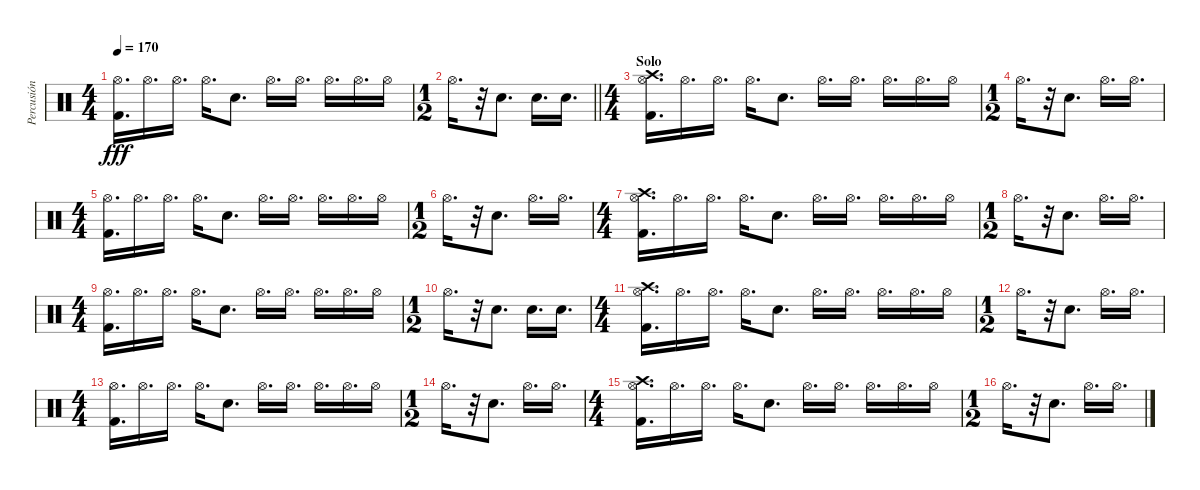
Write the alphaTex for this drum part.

\track ("Percusión" "Percusión") {instrument percussion}
\staff {score}
\articulation defaults
\ts (4 4)
\tempo 170
\clef neutral
\ks c
("Hi-Hat (open)" "Kick (hit) 2").16{d dy fff} "Hi-Hat (open)".16{d} "Hi-Hat (open)".16{d} "Hi-Hat (open)".16{d} "Electric Snare (hit)".8{d} "Hi-Hat (open)".16{d} "Hi-Hat (open)".16{d} "Hi-Hat (open)".16{d} "Hi-Hat (open)".16{d} "Hi-Hat (open)".16 |
\ts (1 2)
\barLineRight lightlight "Hi-Hat (open)".16{d}
r.32 "Electric Snare (hit)".8{d} "Electric Snare (hit)".16{d} "Electric Snare (hit)".16{d} |
\ts (4 4)
\section ("" "Solo")
("Crash high (hit)" "Hi-Hat (open)" "Kick (hit) 2").16{d} "Hi-Hat (open)".16{d} "Hi-Hat (open)".16{d} "Hi-Hat (open)".16{d} "Electric Snare (hit)".8{d} "Hi-Hat (open)".16{d} "Hi-Hat (open)".16{d} "Hi-Hat (open)".16{d} "Hi-Hat (open)".16{d} "Hi-Hat (open)".16 |
\ts (1 2)
"Hi-Hat (open)".16{d} r.32 "Electric Snare (hit)".8{d} "Hi-Hat (open)".16{d} "Hi-Hat (open)".16{d} |
\ts (4 4)
("Hi-Hat (open)" "Kick (hit) 2").16{d} "Hi-Hat (open)".16{d} "Hi-Hat (open)".16{d} "Hi-Hat (open)".16{d} "Electric Snare (hit)".8{d} "Hi-Hat (open)".16{d} "Hi-Hat (open)".16{d} "Hi-Hat (open)".16{d} "Hi-Hat (open)".16{d} "Hi-Hat (open)".16 |
\ts (1 2)
"Hi-Hat (open)".16{d} r.32 "Electric Snare (hit)".8{d} "Hi-Hat (open)".16{d} "Hi-Hat (open)".16{d} |
\ts (4 4)
("Crash high (hit)" "Hi-Hat (open)" "Kick (hit) 2").16{d} "Hi-Hat (open)".16{d} "Hi-Hat (open)".16{d} "Hi-Hat (open)".16{d} "Electric Snare (hit)".8{d} "Hi-Hat (open)".16{d} "Hi-Hat (open)".16{d} "Hi-Hat (open)".16{d} "Hi-Hat (open)".16{d} "Hi-Hat (open)".16 |
\ts (1 2)
"Hi-Hat (open)".16{d} r.32 "Electric Snare (hit)".8{d} "Hi-Hat (open)".16{d} "Hi-Hat (open)".16{d} |
\ts (4 4)
("Hi-Hat (open)" "Kick (hit) 2").16{d} "Hi-Hat (open)".16{d} "Hi-Hat (open)".16{d} "Hi-Hat (open)".16{d} "Electric Snare (hit)".8{d} "Hi-Hat (open)".16{d} "Hi-Hat (open)".16{d} "Hi-Hat (open)".16{d} "Hi-Hat (open)".16{d} "Hi-Hat (open)".16 |
\ts (1 2)
"Hi-Hat (open)".16{d} r.32 "Electric Snare (hit)".8{d} "Electric Snare (hit)".16{d} "Electric Snare (hit)".16{d} |
\ts (4 4)
("Crash high (hit)" "Hi-Hat (open)" "Kick (hit) 2").16{d} "Hi-Hat (open)".16{d} "Hi-Hat (open)".16{d} "Hi-Hat (open)".16{d} "Electric Snare (hit)".8{d} "Hi-Hat (open)".16{d} "Hi-Hat (open)".16{d} "Hi-Hat (open)".16{d} "Hi-Hat (open)".16{d} "Hi-Hat (open)".16 |
\ts (1 2)
"Hi-Hat (open)".16{d} r.32 "Electric Snare (hit)".8{d} "Hi-Hat (open)".16{d} "Hi-Hat (open)".16{d} |
\ts (4 4)
("Hi-Hat (open)" "Kick (hit) 2").16{d} "Hi-Hat (open)".16{d} "Hi-Hat (open)".16{d} "Hi-Hat (open)".16{d} "Electric Snare (hit)".8{d} "Hi-Hat (open)".16{d} "Hi-Hat (open)".16{d} "Hi-Hat (open)".16{d} "Hi-Hat (open)".16{d} "Hi-Hat (open)".16 |
\ts (1 2)
"Hi-Hat (open)".16{d} r.32 "Electric Snare (hit)".8{d} "Hi-Hat (open)".16{d} "Hi-Hat (open)".16{d} |
\ts (4 4)
("Crash high (hit)" "Hi-Hat (open)" "Kick (hit) 2").16{d} "Hi-Hat (open)".16{d} "Hi-Hat (open)".16{d} "Hi-Hat (open)".16{d} "Electric Snare (hit)".8{d} "Hi-Hat (open)".16{d} "Hi-Hat (open)".16{d} "Hi-Hat (open)".16{d} "Hi-Hat (open)".16{d} "Hi-Hat (open)".16 |
\ts (1 2)
"Hi-Hat (open)".16{d} r.32 "Electric Snare (hit)".8{d} "Hi-Hat (open)".16{d} "Hi-Hat (open)".16{d}
